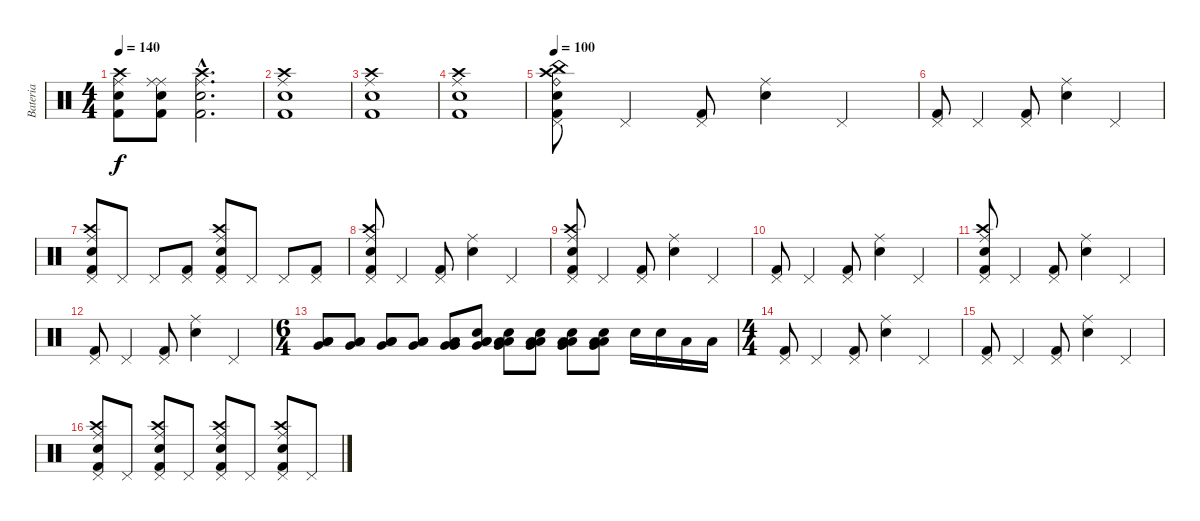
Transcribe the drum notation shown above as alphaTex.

\track ("Bateria" "Bateria") {instrument percussion}
\staff {score}
\articulation defaults
\ts (4 4)
\tempo 140
\clef neutral
\ks c
("Kick (hit) 2" "Ride (middle)" "Electric Snare (hit)" "Crash high (hit)").8{dy f} ("Kick (hit) 2" "Ride (middle)" "Electric Snare (hit)" "Ride (middle)").8 ("Kick (hit) 2"{hac} "Ride (middle)"{hac} "Electric Snare (hit)"{hac} "Crash high (hit)"{hac}).2{d} |
("Kick (hit) 2" "Electric Snare (hit)" "Ride (middle)" "Crash high (hit)").1 |
("Kick (hit) 2" "Electric Snare (hit)" "Ride (middle)" "Crash high (hit)").1 |
("Kick (hit) 2" "Electric Snare (hit)" "Ride (middle)" "Crash high (hit)").1 |
\tempo 120
\tempo 100
("Kick (hit) 2" "China (hit)" "Electric Snare (hit)" "Pedal Hi-Hat (hit)" "Crash high (hit)" "Ride (bell)").8 "Pedal Hi-Hat (hit)".4 ("Kick (hit) 2" "Pedal Hi-Hat (hit)").8 ("Electric Snare (hit)" "Ride (middle)").4 "Pedal Hi-Hat (hit)".4 |
("Kick (hit) 2" "Pedal Hi-Hat (hit)").8 "Pedal Hi-Hat (hit)".4 ("Kick (hit) 2" "Pedal Hi-Hat (hit)").8 ("Electric Snare (hit)" "Ride (middle)").4 "Pedal Hi-Hat (hit)".4 |
("Kick (hit) 2" "Electric Snare (hit)" "Ride (middle)" "Crash high (hit)" "Pedal Hi-Hat (hit)").8 "Pedal Hi-Hat (hit)".8 "Pedal Hi-Hat (hit)".8 ("Kick (hit) 2" "Pedal Hi-Hat (hit)").8 ("Kick (hit) 2" "Electric Snare (hit)" "Ride (middle)" "Crash high (hit)" "Pedal Hi-Hat (hit)").8 "Pedal Hi-Hat (hit)".8 "Pedal Hi-Hat (hit)".8 ("Kick (hit) 2" "Pedal Hi-Hat (hit)").8 |
("Kick (hit) 2" "Electric Snare (hit)" "Ride (middle)" "Crash high (hit)" "Pedal Hi-Hat (hit)").8 "Pedal Hi-Hat (hit)".4 ("Kick (hit) 2" "Pedal Hi-Hat (hit)").8 ("Electric Snare (hit)" "Ride (middle)").4 "Pedal Hi-Hat (hit)".4 |
("Kick (hit) 2" "Ride (middle)" "Pedal Hi-Hat (hit)" "Electric Snare (hit)" "Crash high (hit)").8 "Pedal Hi-Hat (hit)".4 ("Kick (hit) 2" "Pedal Hi-Hat (hit)").8 ("Electric Snare (hit)" "Ride (middle)").4 "Pedal Hi-Hat (hit)".4 |
("Kick (hit) 2" "Pedal Hi-Hat (hit)").8 "Pedal Hi-Hat (hit)".4 ("Kick (hit) 2" "Pedal Hi-Hat (hit)").8 ("Electric Snare (hit)" "Ride (middle)").4 "Pedal Hi-Hat (hit)".4 |
("Kick (hit) 2" "Ride (middle)" "Pedal Hi-Hat (hit)" "Electric Snare (hit)" "Crash high (hit)").8 "Pedal Hi-Hat (hit)".4 ("Kick (hit) 2" "Pedal Hi-Hat (hit)").8 ("Electric Snare (hit)" "Ride (middle)").4 "Pedal Hi-Hat (hit)".4 |
("Kick (hit) 2" "Pedal Hi-Hat (hit)").8 "Pedal Hi-Hat (hit)".4 ("Kick (hit) 2" "Pedal Hi-Hat (hit)").8 ("Electric Snare (hit)" "Ride (middle)").4 "Pedal Hi-Hat (hit)".4 |
\ts (6 4)
("Low Tom (hit)" "Very Low Tom (hit)" "Low Floor Tom (hit)").8 ("Low Tom (hit)" "Very Low Tom (hit)" "Low Floor Tom (hit)").8 ("Low Tom (hit)" "Very Low Tom (hit)" "Low Floor Tom (hit)").8 ("Low Tom (hit)" "Very Low Tom (hit)" "Low Floor Tom (hit)").8 ("Low Tom (hit)" "Very Low Tom (hit)" "Very Low Tom (hit)").8 ("Low Tom (hit)" "Very Low Tom (hit)" "Low Floor Tom (hit)" "Electric Snare (hit)").8 ("Low Tom (hit)" "Very Low Tom (hit)" "Low Floor Tom (hit)" "Electric Snare (hit)").8 ("Low Tom (hit)" "Very Low Tom (hit)" "Low Floor Tom (hit)" "Electric Snare (hit)").8 ("Low Tom (hit)" "Very Low Tom (hit)" "Low Floor Tom (hit)" "Electric Snare (hit)").8 ("Low Tom (hit)" "Very Low Tom (hit)" "Low Floor Tom (hit)" "Electric Snare (hit)").8 "Electric Snare (hit)".16 "Electric Snare (hit)".16 "Low Tom (hit)".16 "Low Tom (hit)".16 |
\ts (4 4)
("Kick (hit) 2" "Pedal Hi-Hat (hit)").8 "Pedal Hi-Hat (hit)".4 ("Kick (hit) 2" "Pedal Hi-Hat (hit)").8 ("Electric Snare (hit)" "Ride (middle)").4 "Pedal Hi-Hat (hit)".4 |
("Kick (hit) 2" "Pedal Hi-Hat (hit)").8 "Pedal Hi-Hat (hit)".4 ("Kick (hit) 2" "Pedal Hi-Hat (hit)").8 ("Electric Snare (hit)" "Ride (middle)").4 "Pedal Hi-Hat (hit)".4 |
("Kick (hit) 2" "Electric Snare (hit)" "Ride (middle)" "Crash high (hit)" "Pedal Hi-Hat (hit)").8 "Pedal Hi-Hat (hit)".8 ("Kick (hit) 2" "Electric Snare (hit)" "Ride (middle)" "Crash high (hit)" "Pedal Hi-Hat (hit)").8 "Pedal Hi-Hat (hit)".8 ("Kick (hit) 2" "Electric Snare (hit)" "Ride (middle)" "Crash high (hit)" "Pedal Hi-Hat (hit)").8 "Pedal Hi-Hat (hit)".8 ("Kick (hit) 2" "Electric Snare (hit)" "Ride (middle)" "Crash high (hit)" "Pedal Hi-Hat (hit)").8 "Pedal Hi-Hat (hit)".8
